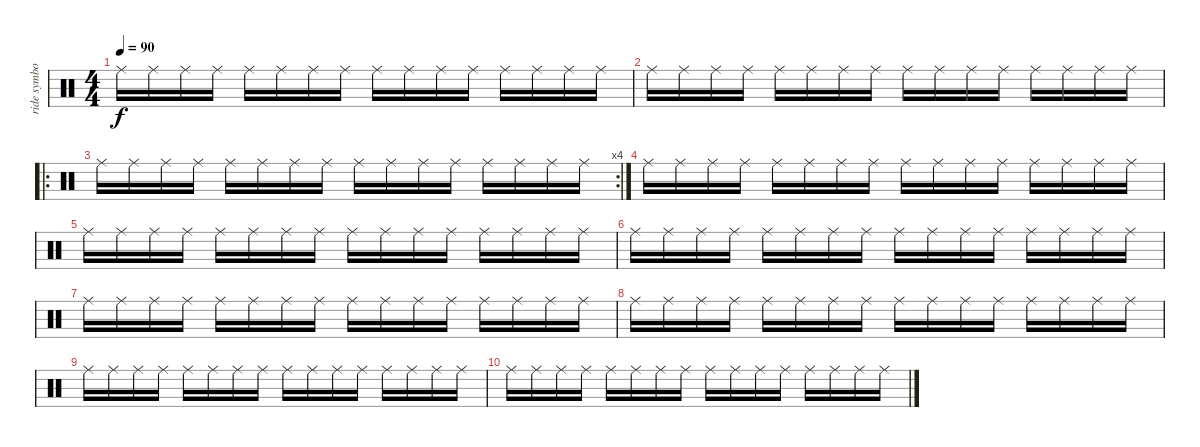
\track ("ride symbol" "ride symbo") {instrument percussion}
\staff {score}
\articulation defaults
\ts (4 4)
\tempo 90
\clef neutral
\ks c "Ride (middle)".16{dy f} "Ride (middle)".16 "Ride (middle)".16 "Ride (middle)".16 "Ride (middle)".16 "Ride (middle)".16 "Ride (middle)".16 "Ride (middle)".16 "Ride (middle)".16 "Ride (middle)".16 "Ride (middle)".16 "Ride (middle)".16 "Ride (middle)".16 "Ride (middle)".16 "Ride (middle)".16 "Ride (middle)".16
|
"Ride (middle)".16 "Ride (middle)".16 "Ride (middle)".16 "Ride (middle)".16 "Ride (middle)".16 "Ride (middle)".16 "Ride (middle)".16 "Ride (middle)".16 "Ride (middle)".16 "Ride (middle)".16 "Ride (middle)".16 "Ride (middle)".16 "Ride (middle)".16 "Ride (middle)".16 "Ride (middle)".16 "Ride (middle)".16 |
\ro
\rc 4 "Ride (middle)".16 "Ride (middle)".16 "Ride (middle)".16 "Ride (middle)".16 "Ride (middle)".16 "Ride (middle)".16 "Ride (middle)".16 "Ride (middle)".16 "Ride (middle)".16 "Ride (middle)".16 "Ride (middle)".16 "Ride (middle)".16 "Ride (middle)".16 "Ride (middle)".16 "Ride (middle)".16 "Ride (middle)".16
|
"Ride (middle)".16 "Ride (middle)".16 "Ride (middle)".16 "Ride (middle)".16 "Ride (middle)".16 "Ride (middle)".16 "Ride (middle)".16 "Ride (middle)".16 "Ride (middle)".16 "Ride (middle)".16 "Ride (middle)".16 "Ride (middle)".16 "Ride (middle)".16 "Ride (middle)".16 "Ride (middle)".16 "Ride (middle)".16 |
"Ride (middle)".16 "Ride (middle)".16 "Ride (middle)".16 "Ride (middle)".16 "Ride (middle)".16 "Ride (middle)".16 "Ride (middle)".16 "Ride (middle)".16 "Ride (middle)".16 "Ride (middle)".16 "Ride (middle)".16 "Ride (middle)".16 "Ride (middle)".16 "Ride (middle)".16 "Ride (middle)".16 "Ride (middle)".16 |
"Ride (middle)".16 "Ride (middle)".16 "Ride (middle)".16 "Ride (middle)".16 "Ride (middle)".16 "Ride (middle)".16 "Ride (middle)".16 "Ride (middle)".16 "Ride (middle)".16 "Ride (middle)".16 "Ride (middle)".16 "Ride (middle)".16 "Ride (middle)".16 "Ride (middle)".16 "Ride (middle)".16 "Ride (middle)".16 |
"Ride (middle)".16 "Ride (middle)".16 "Ride (middle)".16 "Ride (middle)".16 "Ride (middle)".16 "Ride (middle)".16 "Ride (middle)".16 "Ride (middle)".16 "Ride (middle)".16 "Ride (middle)".16 "Ride (middle)".16 "Ride (middle)".16 "Ride (middle)".16 "Ride (middle)".16 "Ride (middle)".16 "Ride (middle)".16 |
"Ride (middle)".16 "Ride (middle)".16 "Ride (middle)".16 "Ride (middle)".16 "Ride (middle)".16 "Ride (middle)".16 "Ride (middle)".16 "Ride (middle)".16 "Ride (middle)".16 "Ride (middle)".16 "Ride (middle)".16 "Ride (middle)".16 "Ride (middle)".16 "Ride (middle)".16 "Ride (middle)".16 "Ride (middle)".16 |
"Ride (middle)".16 "Ride (middle)".16 "Ride (middle)".16 "Ride (middle)".16 "Ride (middle)".16 "Ride (middle)".16 "Ride (middle)".16 "Ride (middle)".16 "Ride (middle)".16 "Ride (middle)".16 "Ride (middle)".16 "Ride (middle)".16 "Ride (middle)".16 "Ride (middle)".16 "Ride (middle)".16 "Ride (middle)".16 |
"Ride (middle)".16 "Ride (middle)".16 "Ride (middle)".16 "Ride (middle)".16 "Ride (middle)".16 "Ride (middle)".16 "Ride (middle)".16 "Ride (middle)".16 "Ride (middle)".16 "Ride (middle)".16 "Ride (middle)".16 "Ride (middle)".16 "Ride (middle)".16 "Ride (middle)".16 "Ride (middle)".16 "Ride (middle)".16
